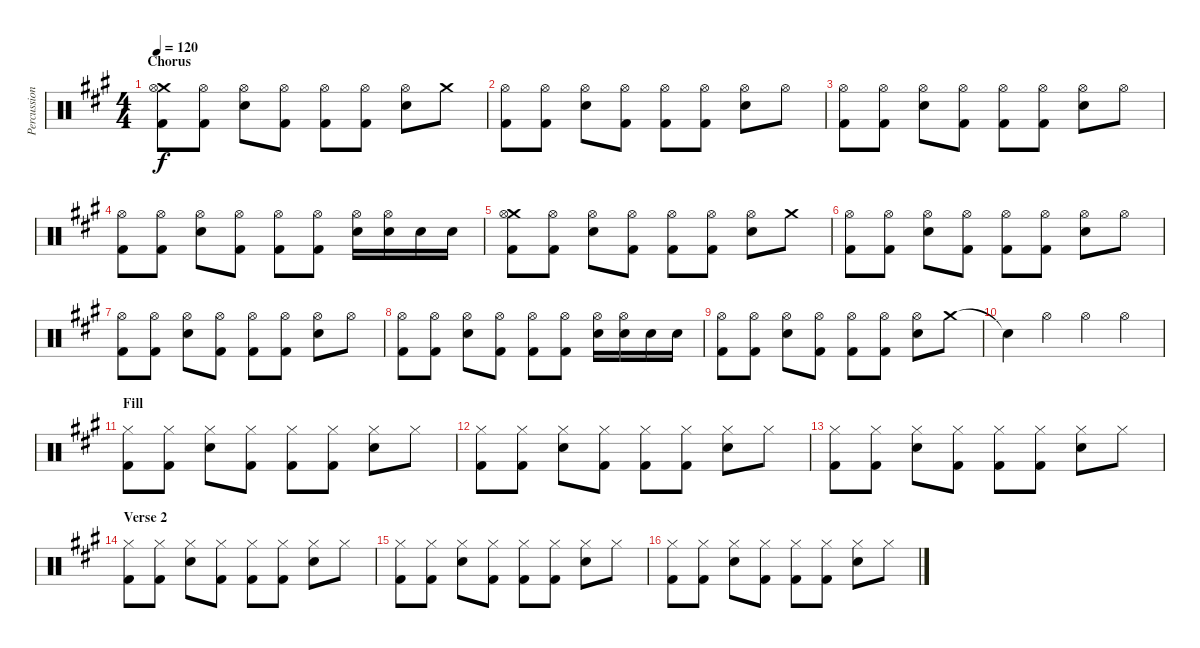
\track ("Percussion" "Percussion") {instrument percussion}
\staff {score}
\articulation defaults
\ts (4 4)
\section ("" "Chorus")
\tempo 120
\clef neutral
\ks a
("Crash medium (hit)" "Hi-Hat (open)" "Kick (hit) 2").8{dy f} ("Hi-Hat (open)" "Kick (hit) 2").8 ("Hi-Hat (open)" "Snare (hit) 2").8 ("Hi-Hat (open)" "Kick (hit) 2").8 ("Hi-Hat (open)" "Kick (hit) 2").8 ("Hi-Hat (open)" "Kick (hit) 2").8 ("Hi-Hat (open)" "Snare (hit) 2").8 "Crash medium (hit)".8 |
("Hi-Hat (open)" "Kick (hit) 2").8 ("Hi-Hat (open)" "Kick (hit) 2").8 ("Hi-Hat (open)" "Snare (hit) 2").8 ("Hi-Hat (open)" "Kick (hit) 2").8 ("Hi-Hat (open)" "Kick (hit) 2").8 ("Hi-Hat (open)" "Kick (hit) 2").8 ("Hi-Hat (open)" "Snare (hit) 2").8 "Hi-Hat (open)".8 |
("Hi-Hat (open)" "Kick (hit) 2").8 ("Hi-Hat (open)" "Kick (hit) 2").8 ("Hi-Hat (open)" "Snare (hit) 2").8 ("Hi-Hat (open)" "Kick (hit) 2").8 ("Hi-Hat (open)" "Kick (hit) 2").8 ("Hi-Hat (open)" "Kick (hit) 2").8 ("Hi-Hat (open)" "Snare (hit) 2").8 "Hi-Hat (open)".8 |
("Hi-Hat (open)" "Kick (hit) 2").8 ("Hi-Hat (open)" "Kick (hit) 2").8 ("Hi-Hat (open)" "Snare (hit) 2").8 ("Hi-Hat (open)" "Kick (hit) 2").8 ("Hi-Hat (open)" "Kick (hit) 2").8 ("Hi-Hat (open)" "Kick (hit) 2").8 ("Hi-Hat (open)" "Snare (hit) 2").16 ("Hi-Hat (open)" "Snare (hit) 2").16 "Snare (hit) 2".16 "Snare (hit) 2".16 |
("Crash medium (hit)" "Hi-Hat (open)" "Kick (hit) 2").8 ("Hi-Hat (open)" "Kick (hit) 2").8 ("Hi-Hat (open)" "Snare (hit) 2").8 ("Hi-Hat (open)" "Kick (hit) 2").8 ("Hi-Hat (open)" "Kick (hit) 2").8 ("Hi-Hat (open)" "Kick (hit) 2").8 ("Hi-Hat (open)" "Snare (hit) 2").8 "Crash medium (hit)".8 |
("Hi-Hat (open)" "Kick (hit) 2").8 ("Hi-Hat (open)" "Kick (hit) 2").8 ("Hi-Hat (open)" "Snare (hit) 2").8 ("Hi-Hat (open)" "Kick (hit) 2").8 ("Hi-Hat (open)" "Kick (hit) 2").8 ("Hi-Hat (open)" "Kick (hit) 2").8 ("Hi-Hat (open)" "Snare (hit) 2").8 "Hi-Hat (open)".8 |
("Hi-Hat (open)" "Kick (hit) 2").8 ("Hi-Hat (open)" "Kick (hit) 2").8 ("Hi-Hat (open)" "Snare (hit) 2").8 ("Hi-Hat (open)" "Kick (hit) 2").8 ("Hi-Hat (open)" "Kick (hit) 2").8 ("Hi-Hat (open)" "Kick (hit) 2").8 ("Hi-Hat (open)" "Snare (hit) 2").8 "Hi-Hat (open)".8 |
("Hi-Hat (open)" "Kick (hit) 2").8 ("Hi-Hat (open)" "Kick (hit) 2").8 ("Hi-Hat (open)" "Snare (hit) 2").8 ("Hi-Hat (open)" "Kick (hit) 2").8 ("Hi-Hat (open)" "Kick (hit) 2").8 ("Hi-Hat (open)" "Kick (hit) 2").8 ("Hi-Hat (open)" "Snare (hit) 2").16 ("Hi-Hat (open)" "Snare (hit) 2").16 "Snare (hit) 2".16 "Snare (hit) 2".16 |
("Hi-Hat (open)" "Kick (hit) 2").8 ("Hi-Hat (open)" "Kick (hit) 2").8 ("Hi-Hat (open)" "Snare (hit) 2").8 ("Hi-Hat (open)" "Kick (hit) 2").8 ("Hi-Hat (open)" "Kick (hit) 2").8 ("Hi-Hat (open)" "Kick (hit) 2").8 ("Hi-Hat (open)" "Snare (hit) 2").8 "Crash medium (hit)".8 |
"Snare (hit)"{t}.4 "Hi-Hat (open)".4 "Hi-Hat (open)".4 "Hi-Hat (open)".4 |
\section ("" "Fill")
("Hi-Hat (closed)" "Kick (hit) 2").8 ("Hi-Hat (closed)" "Kick (hit) 2").8 ("Hi-Hat (closed)" "Snare (hit) 2").8 ("Hi-Hat (closed)" "Kick (hit) 2").8 ("Hi-Hat (closed)" "Kick (hit) 2").8 ("Hi-Hat (closed)" "Kick (hit) 2").8 ("Hi-Hat (closed)" "Snare (hit) 2").8 "Hi-Hat (closed)".8 |
("Hi-Hat (closed)" "Kick (hit) 2").8 ("Hi-Hat (closed)" "Kick (hit) 2").8 ("Hi-Hat (closed)" "Snare (hit) 2").8 ("Hi-Hat (closed)" "Kick (hit) 2").8 ("Hi-Hat (closed)" "Kick (hit) 2").8 ("Hi-Hat (closed)" "Kick (hit) 2").8 ("Hi-Hat (closed)" "Snare (hit) 2").8 "Hi-Hat (closed)".8 |
("Hi-Hat (closed)" "Kick (hit) 2").8 ("Hi-Hat (closed)" "Kick (hit) 2").8 ("Hi-Hat (closed)" "Snare (hit) 2").8 ("Hi-Hat (closed)" "Kick (hit) 2").8 ("Hi-Hat (closed)" "Kick (hit) 2").8 ("Hi-Hat (closed)" "Kick (hit) 2").8 ("Hi-Hat (closed)" "Snare (hit) 2").8 "Hi-Hat (closed)".8 |
\section ("" "Verse 2")
("Hi-Hat (closed)" "Kick (hit) 2").8 ("Hi-Hat (closed)" "Kick (hit) 2").8 ("Hi-Hat (closed)" "Snare (hit) 2").8 ("Hi-Hat (closed)" "Kick (hit) 2").8 ("Hi-Hat (closed)" "Kick (hit) 2").8 ("Hi-Hat (closed)" "Kick (hit) 2").8 ("Hi-Hat (closed)" "Snare (hit) 2").8 "Hi-Hat (closed)".8 |
("Hi-Hat (closed)" "Kick (hit) 2").8 ("Hi-Hat (closed)" "Kick (hit) 2").8 ("Hi-Hat (closed)" "Snare (hit) 2").8 ("Hi-Hat (closed)" "Kick (hit) 2").8 ("Hi-Hat (closed)" "Kick (hit) 2").8 ("Hi-Hat (closed)" "Kick (hit) 2").8 ("Hi-Hat (closed)" "Snare (hit) 2").8 "Hi-Hat (closed)".8 |
("Hi-Hat (closed)" "Kick (hit) 2").8 ("Hi-Hat (closed)" "Kick (hit) 2").8 ("Hi-Hat (closed)" "Snare (hit) 2").8 ("Hi-Hat (closed)" "Kick (hit) 2").8 ("Hi-Hat (closed)" "Kick (hit) 2").8 ("Hi-Hat (closed)" "Kick (hit) 2").8 ("Hi-Hat (closed)" "Snare (hit) 2").8 "Hi-Hat (closed)".8
